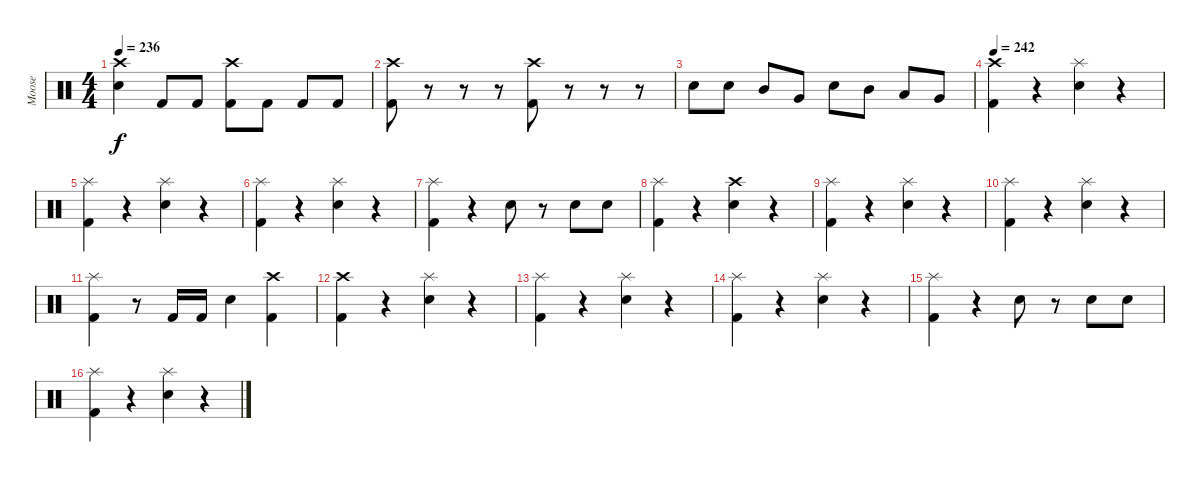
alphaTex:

\track ("Moose" "Moose") {instrument percussion}
\staff {score}
\articulation defaults
\ts (4 4)
\tempo 236
\clef neutral
\ks c
("Crash high (hit)" "Electric Snare (hit)").4{dy f} "Kick (hit) 2".8 "Kick (hit) 2".8 ("Crash high (hit)" "Kick (hit) 2").8 "Kick (hit) 2".8 "Kick (hit) 2".8 "Kick (hit) 2".8 |
("Crash high (hit)" "Kick (hit) 2").8 r.8 r.8 r.8 ("Crash high (hit)" "Kick (hit) 2").8 r.8 r.8 r.8 |
"Electric Snare (hit)".8 "Electric Snare (hit)".8 "Mid Tom (hit)".8 "Very Low Tom (hit)".8 "Electric Snare (hit)".8 "Mid Tom (hit)".8 "Low Tom (hit)".8 "Very Low Tom (hit)".8 |
\tempo 242
("Crash high (hit)" "Kick (hit) 2").4 r.4 ("Splash (hit)" "Electric Snare (hit)").4 r.4 |
("Splash (hit)" "Kick (hit) 2").4 r.4 ("Splash (hit)" "Electric Snare (hit)").4 r.4 |
("Splash (hit)" "Kick (hit) 2").4 r.4 ("Splash (hit)" "Electric Snare (hit)").4 r.4 |
("Splash (hit)" "Kick (hit) 2").4 r.4 "Electric Snare (hit)".8 r.8 "Electric Snare (hit)".8 "Electric Snare (hit)".8 |
("Splash (hit)" "Kick (hit) 2").4 r.4 ("Crash high (hit)" "Electric Snare (hit)").4 r.4 |
("Splash (hit)" "Kick (hit) 2").4 r.4 ("Splash (hit)" "Electric Snare (hit)").4 r.4 |
("Splash (hit)" "Kick (hit) 2").4 r.4 ("Splash (hit)" "Electric Snare (hit)").4 r.4 |
("Splash (hit)" "Kick (hit) 2").4 r.8 "Kick (hit) 2".16 "Kick (hit) 2".16 "Electric Snare (hit)".4 ("Crash high (hit)" "Kick (hit) 2").4 |
("Crash high (hit)" "Kick (hit) 2").4 r.4 ("Splash (hit)" "Electric Snare (hit)").4 r.4 |
("Splash (hit)" "Kick (hit) 2").4 r.4 ("Splash (hit)" "Electric Snare (hit)").4 r.4 |
("Splash (hit)" "Kick (hit) 2").4 r.4 ("Splash (hit)" "Electric Snare (hit)").4 r.4 |
("Splash (hit)" "Kick (hit) 2").4 r.4 "Electric Snare (hit)".8 r.8 "Electric Snare (hit)".8 "Electric Snare (hit)".8 |
("Splash (hit)" "Kick (hit) 2").4 r.4 ("Splash (hit)" "Electric Snare (hit)").4 r.4
